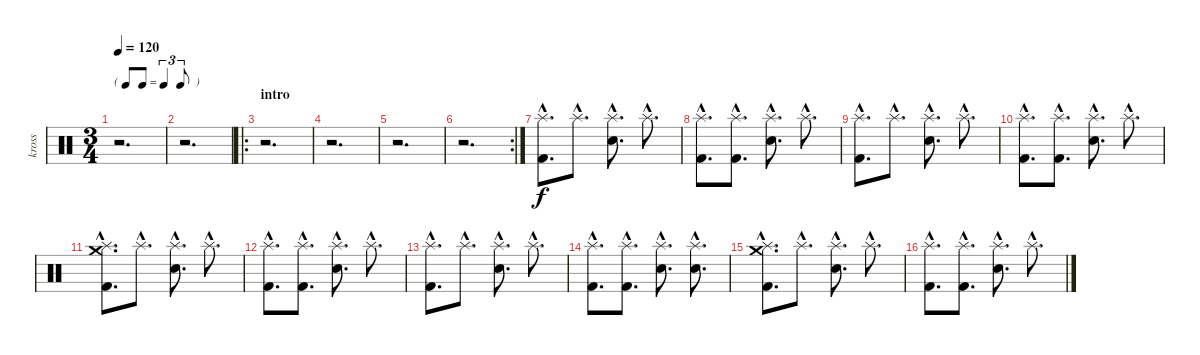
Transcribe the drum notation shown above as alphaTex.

\track ("kross" "kross") {instrument percussion}
\staff {score}
\articulation defaults
\ts (3 4)
\tf triplet8th
\tempo 120
\clef neutral
\ks c
r.2{d dy f} |
r.2{d} |
\ro
\section ("" "intro")
r.2{d} |
r.2{d} |
r.2{d} |
\rc 2
r.2{d} |
("Splash (hit)"{hac} "Kick (hit) 2"{hac}).8{d} "Splash (hit)"{hac}.8{d} ("Electric Snare (hit)"{hac} "Splash (hit)"{hac}).8{d} "Splash (hit)"{hac}.8{d} |
("Splash (hit)"{hac} "Kick (hit) 2"{hac}).8{d} ("Splash (hit)"{hac} "Kick (hit) 2"{hac}).8{d} ("Electric Snare (hit)"{hac} "Splash (hit)"{hac}).8{d} "Splash (hit)"{hac}.8{d} |
("Splash (hit)"{hac} "Kick (hit) 2"{hac}).8{d} "Splash (hit)"{hac}.8{d} ("Electric Snare (hit)"{hac} "Splash (hit)"{hac}).8{d} "Splash (hit)"{hac}.8{d} |
("Splash (hit)"{hac} "Kick (hit) 2"{hac}).8{d} ("Splash (hit)"{hac} "Kick (hit) 2"{hac}).8{d} ("Electric Snare (hit)"{hac} "Splash (hit)"{hac}).8{d} "Splash (hit)"{hac}.8{d} |
("Splash (hit)"{hac} "Crash medium (hit)"{hac} "Kick (hit) 2"{hac}).8{d} "Splash (hit)"{hac}.8{d} ("Electric Snare (hit)"{hac} "Splash (hit)"{hac}).8{d} "Splash (hit)"{hac}.8{d} |
("Splash (hit)"{hac} "Kick (hit) 2"{hac}).8{d} ("Splash (hit)"{hac} "Kick (hit) 2"{hac}).8{d} ("Electric Snare (hit)"{hac} "Splash (hit)"{hac}).8{d} "Splash (hit)"{hac}.8{d} |
("Splash (hit)"{hac} "Kick (hit) 2"{hac}).8{d} "Splash (hit)"{hac}.8{d} ("Electric Snare (hit)"{hac} "Splash (hit)"{hac}).8{d} "Splash (hit)"{hac}.8{d} |
("Splash (hit)"{hac} "Kick (hit) 2"{hac}).8{d} ("Splash (hit)"{hac} "Kick (hit) 2"{hac}).8{d} ("Electric Snare (hit)"{hac} "Splash (hit)"{hac}).8{d} ("Electric Snare (hit)"{hac} "Splash (hit)"{hac}).8{d} |
("Splash (hit)"{hac} "Crash medium (hit)"{hac} "Kick (hit) 2"{hac}).8{d} "Splash (hit)"{hac}.8{d} ("Electric Snare (hit)"{hac} "Splash (hit)"{hac}).8{d} "Splash (hit)"{hac}.8{d} |
("Splash (hit)"{hac} "Kick (hit) 2"{hac}).8{d} ("Splash (hit)"{hac} "Kick (hit) 2"{hac}).8{d} ("Electric Snare (hit)"{hac} "Splash (hit)"{hac}).8{d} "Splash (hit)"{hac}.8{d}
